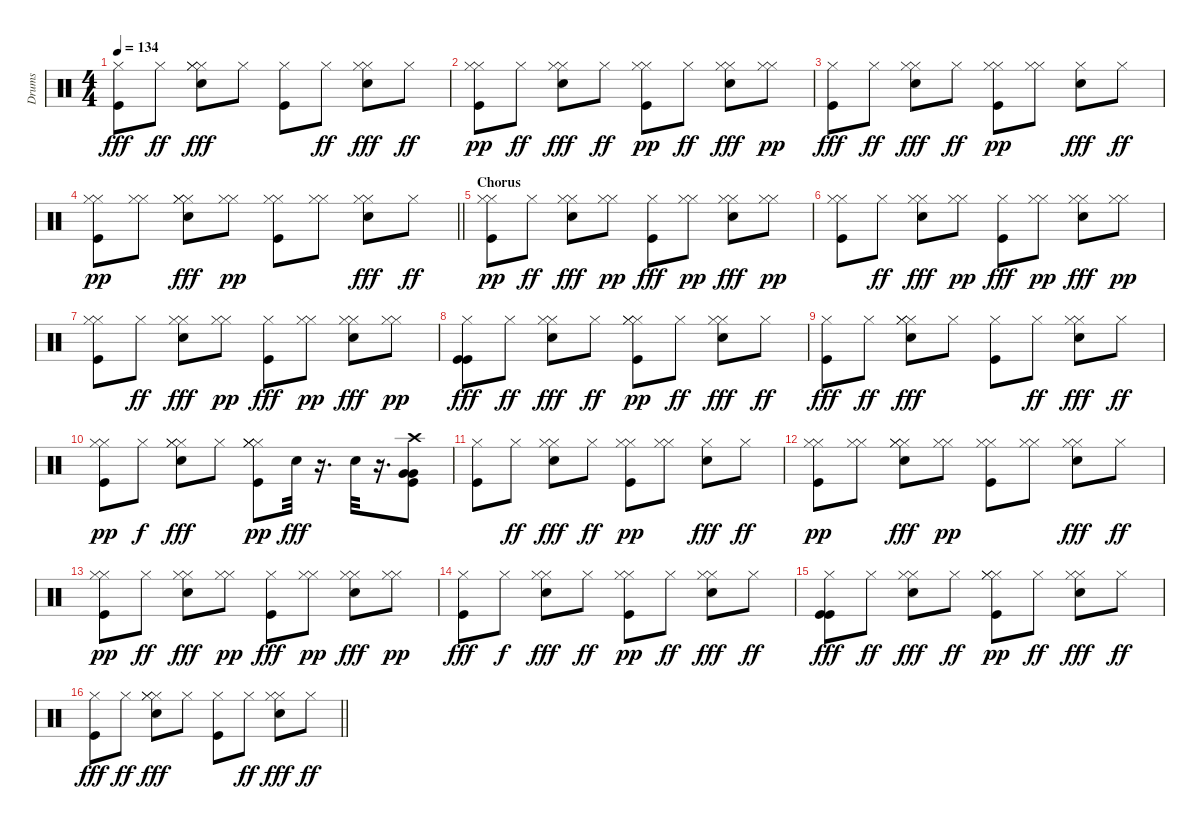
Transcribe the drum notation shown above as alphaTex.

\track ("Drums" "Drums") {instrument percussion}
\staff {score}
\articulation defaults
\ts (4 4)
\tempo 134
\clef neutral
\ks c
("Hi-Hat (closed)" "Kick (hit)").8{dy fff} "Hi-Hat (closed)".8{dy ff} ("Hi-Hat (closed)" "Hi-Hat (closed)" "Hi-Hat (closed)" "Electric Snare (hit)").8{dy fff} "Hi-Hat (closed)".8 ("Hi-Hat (closed)" "Kick (hit)").8 "Hi-Hat (closed)".8{dy ff} ("Hi-Hat (closed)" "Hi-Hat (closed)" "Electric Snare (hit)").8{dy fff} "Hi-Hat (closed)".8{dy ff} |
("Hi-Hat (closed)" "Hi-Hat (closed)" "Kick (hit)").8{dy pp} "Hi-Hat (closed)".8{dy ff} ("Hi-Hat (closed)" "Hi-Hat (closed)" "Electric Snare (hit)").8{dy fff} "Hi-Hat (closed)".8{dy ff} ("Hi-Hat (closed)" "Hi-Hat (closed)" "Kick (hit)").8{dy pp} "Hi-Hat (closed)".8{dy ff} ("Hi-Hat (closed)" "Hi-Hat (closed)" "Electric Snare (hit)").8{dy fff} ("Hi-Hat (closed)" "Hi-Hat (closed)").8{dy pp} |
("Hi-Hat (closed)" "Kick (hit)").8{dy fff} "Hi-Hat (closed)".8{dy ff} ("Hi-Hat (closed)" "Hi-Hat (closed)" "Electric Snare (hit)").8{dy fff} "Hi-Hat (closed)".8{dy ff} ("Hi-Hat (closed)" "Hi-Hat (closed)" "Kick (hit)").8{dy pp} ("Hi-Hat (closed)" "Hi-Hat (closed)").8 ("Hi-Hat (closed)" "Electric Snare (hit)").8{dy fff} "Hi-Hat (closed)".8{dy ff} |
\barLineRight lightlight
("Hi-Hat (closed)" "Hi-Hat (closed)" "Kick (hit)").8{dy pp} ("Hi-Hat (closed)" "Hi-Hat (closed)").8 ("Hi-Hat (closed)" "Hi-Hat (closed)" "Hi-Hat (closed)" "Electric Snare (hit)").8{dy fff} ("Hi-Hat (closed)" "Hi-Hat (closed)").8{dy pp} ("Hi-Hat (closed)" "Hi-Hat (closed)" "Kick (hit)").8 ("Hi-Hat (closed)" "Hi-Hat (closed)").8 ("Hi-Hat (closed)" "Hi-Hat (closed)" "Electric Snare (hit)").8{dy fff} "Hi-Hat (closed)".8{dy ff} |
\section ("" "Chorus")
("Hi-Hat (closed)" "Hi-Hat (closed)" "Kick (hit)").8{dy pp} "Hi-Hat (closed)".8{dy ff} ("Hi-Hat (closed)" "Hi-Hat (closed)" "Electric Snare (hit)").8{dy fff} ("Hi-Hat (closed)" "Hi-Hat (closed)").8{dy pp} ("Hi-Hat (closed)" "Kick (hit)").8{dy fff} ("Hi-Hat (closed)" "Hi-Hat (closed)").8{dy pp} ("Hi-Hat (closed)" "Hi-Hat (closed)" "Electric Snare (hit)").8{dy fff} ("Hi-Hat (closed)" "Hi-Hat (closed)").8{dy pp} |
("Hi-Hat (closed)" "Hi-Hat (closed)" "Kick (hit)").8 "Hi-Hat (closed)".8{dy ff} ("Hi-Hat (closed)" "Hi-Hat (closed)" "Electric Snare (hit)").8{dy fff} ("Hi-Hat (closed)" "Hi-Hat (closed)").8{dy pp} ("Hi-Hat (closed)" "Kick (hit)").8{dy fff} ("Hi-Hat (closed)" "Hi-Hat (closed)").8{dy pp} ("Hi-Hat (closed)" "Hi-Hat (closed)" "Electric Snare (hit)").8{dy fff} ("Hi-Hat (closed)" "Hi-Hat (closed)").8{dy pp} |
("Hi-Hat (closed)" "Hi-Hat (closed)" "Kick (hit)").8 "Hi-Hat (closed)".8{dy ff} ("Hi-Hat (closed)" "Hi-Hat (closed)" "Electric Snare (hit)").8{dy fff} ("Hi-Hat (closed)" "Hi-Hat (closed)").8{dy pp} ("Hi-Hat (closed)" "Kick (hit)").8{dy fff} ("Hi-Hat (closed)" "Hi-Hat (closed)").8{dy pp} ("Hi-Hat (closed)" "Hi-Hat (closed)" "Electric Snare (hit)").8{dy fff} ("Hi-Hat (closed)" "Hi-Hat (closed)").8{dy pp} |
("Hi-Hat (closed)" "Kick (hit)" "Kick (hit)").8{dy fff} "Hi-Hat (closed)".8{dy ff} ("Hi-Hat (closed)" "Hi-Hat (closed)" "Electric Snare (hit)").8{dy fff} "Hi-Hat (closed)".8{dy ff} ("Hi-Hat (closed)" "Hi-Hat (closed)" "Hi-Hat (closed)" "Kick (hit)").8{dy pp} "Hi-Hat (closed)".8{dy ff} ("Hi-Hat (closed)" "Hi-Hat (closed)" "Electric Snare (hit)").8{dy fff} "Hi-Hat (closed)".8{dy ff} |
("Hi-Hat (closed)" "Kick (hit)").8{dy fff} "Hi-Hat (closed)".8{dy ff} ("Hi-Hat (closed)" "Hi-Hat (closed)" "Hi-Hat (closed)" "Electric Snare (hit)").8{dy fff} "Hi-Hat (closed)".8 ("Hi-Hat (closed)" "Kick (hit)").8 "Hi-Hat (closed)".8{dy ff} ("Hi-Hat (closed)" "Hi-Hat (closed)" "Electric Snare (hit)").8{dy fff} "Hi-Hat (closed)".8{dy ff} |
("Hi-Hat (closed)" "Hi-Hat (closed)" "Kick (hit)").8{dy pp} "Hi-Hat (closed)".8{dy f} ("Hi-Hat (closed)" "Hi-Hat (closed)" "Hi-Hat (closed)" "Electric Snare (hit)").8{dy fff} "Hi-Hat (closed)".8 ("Hi-Hat (closed)" "Hi-Hat (closed)" "Hi-Hat (closed)" "Hi-Hat (closed)" "Kick (hit)").8{dy pp} "Electric Snare (hit)".32{dy fff} r.16{d} "Electric Snare (hit)".32 r.16{d} ("Very Low Tom (hit)" "Very Low Tom (hit)" "Crash high (hit)" "Kick (hit)").8 |
("Hi-Hat (closed)" "Kick (hit)").8 "Hi-Hat (closed)".8{dy ff} ("Hi-Hat (closed)" "Hi-Hat (closed)" "Electric Snare (hit)").8{dy fff} "Hi-Hat (closed)".8{dy ff} ("Hi-Hat (closed)" "Hi-Hat (closed)" "Kick (hit)").8{dy pp} ("Hi-Hat (closed)" "Hi-Hat (closed)").8 ("Hi-Hat (closed)" "Electric Snare (hit)").8{dy fff} "Hi-Hat (closed)".8{dy ff} |
("Hi-Hat (closed)" "Hi-Hat (closed)" "Kick (hit)").8{dy pp} ("Hi-Hat (closed)" "Hi-Hat (closed)").8 ("Hi-Hat (closed)" "Hi-Hat (closed)" "Hi-Hat (closed)" "Electric Snare (hit)").8{dy fff} ("Hi-Hat (closed)" "Hi-Hat (closed)").8{dy pp} ("Hi-Hat (closed)" "Hi-Hat (closed)" "Kick (hit)").8 ("Hi-Hat (closed)" "Hi-Hat (closed)").8 ("Hi-Hat (closed)" "Hi-Hat (closed)" "Electric Snare (hit)").8{dy fff} "Hi-Hat (closed)".8{dy ff} |
("Hi-Hat (closed)" "Hi-Hat (closed)" "Kick (hit)").8{dy pp} "Hi-Hat (closed)".8{dy ff} ("Hi-Hat (closed)" "Hi-Hat (closed)" "Electric Snare (hit)").8{dy fff} ("Hi-Hat (closed)" "Hi-Hat (closed)").8{dy pp} ("Hi-Hat (closed)" "Kick (hit)").8{dy fff} ("Hi-Hat (closed)" "Hi-Hat (closed)").8{dy pp} ("Hi-Hat (closed)" "Hi-Hat (closed)" "Electric Snare (hit)").8{dy fff} ("Hi-Hat (closed)" "Hi-Hat (closed)").8{dy pp} |
("Hi-Hat (closed)" "Kick (hit)").8{dy fff} "Hi-Hat (closed)".8{dy f} ("Hi-Hat (closed)" "Hi-Hat (closed)" "Electric Snare (hit)").8{dy fff} "Hi-Hat (closed)".8{dy ff} ("Hi-Hat (closed)" "Hi-Hat (closed)" "Kick (hit)").8{dy pp} "Hi-Hat (closed)".8{dy ff} ("Hi-Hat (closed)" "Hi-Hat (closed)" "Electric Snare (hit)").8{dy fff} "Hi-Hat (closed)".8{dy ff} |
("Hi-Hat (closed)" "Kick (hit)" "Kick (hit)").8{dy fff} "Hi-Hat (closed)".8{dy ff} ("Hi-Hat (closed)" "Hi-Hat (closed)" "Electric Snare (hit)").8{dy fff} "Hi-Hat (closed)".8{dy ff} ("Hi-Hat (closed)" "Hi-Hat (closed)" "Hi-Hat (closed)" "Kick (hit)").8{dy pp} "Hi-Hat (closed)".8{dy ff} ("Hi-Hat (closed)" "Hi-Hat (closed)" "Electric Snare (hit)").8{dy fff} "Hi-Hat (closed)".8{dy ff} |
\barLineRight lightlight
("Hi-Hat (closed)" "Kick (hit)").8{dy fff} "Hi-Hat (closed)".8{dy ff} ("Hi-Hat (closed)" "Hi-Hat (closed)" "Hi-Hat (closed)" "Electric Snare (hit)").8{dy fff} "Hi-Hat (closed)".8 ("Hi-Hat (closed)" "Kick (hit)").8 "Hi-Hat (closed)".8{dy ff} ("Hi-Hat (closed)" "Hi-Hat (closed)" "Electric Snare (hit)").8{dy fff} "Hi-Hat (closed)".8{dy ff}
